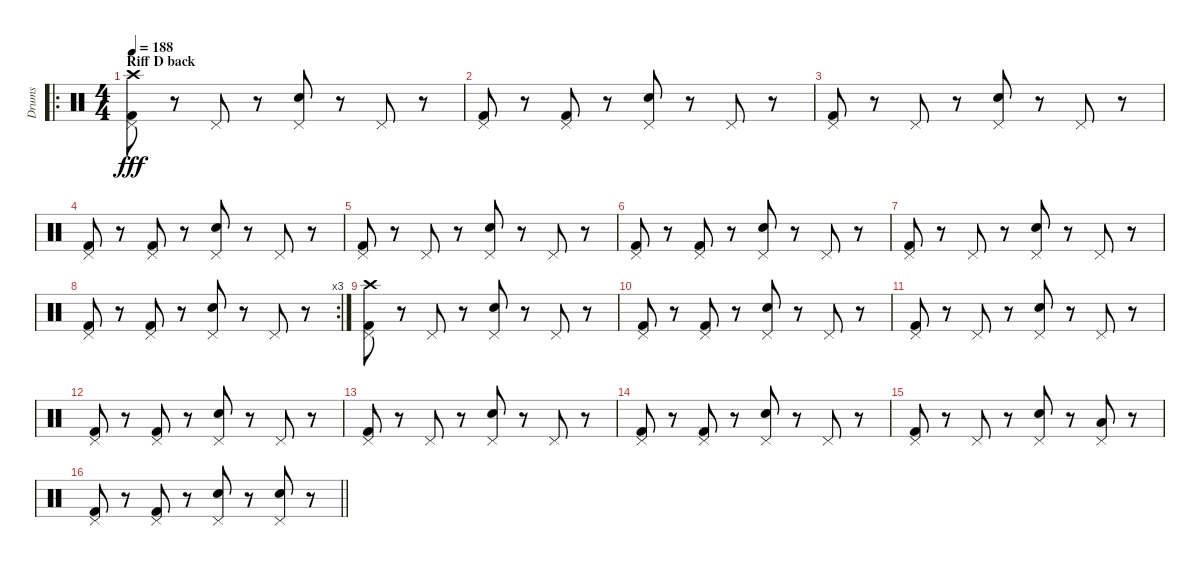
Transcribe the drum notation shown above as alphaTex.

\track ("Drums" "Drums") {instrument percussion}
\staff {score}
\articulation defaults
\ro
\ts (4 4)
\section ("" "Riff D back")
\tempo 188
\clef neutral
\ks c
("Crash high (hit)" "Pedal Hi-Hat (hit)" "Kick (hit) 2").8{dy fff} r.8 "Pedal Hi-Hat (hit)".8 r.8 ("Pedal Hi-Hat (hit)" "Electric Snare (hit)").8 r.8 "Pedal Hi-Hat (hit)".8 r.8 |
("Pedal Hi-Hat (hit)" "Kick (hit) 2").8 r.8 ("Pedal Hi-Hat (hit)" "Kick (hit) 2").8 r.8 ("Pedal Hi-Hat (hit)" "Electric Snare (hit)").8 r.8 "Pedal Hi-Hat (hit)".8 r.8 |
("Pedal Hi-Hat (hit)" "Kick (hit) 2").8 r.8 "Pedal Hi-Hat (hit)".8 r.8 ("Pedal Hi-Hat (hit)" "Electric Snare (hit)").8 r.8 "Pedal Hi-Hat (hit)".8 r.8 |
("Pedal Hi-Hat (hit)" "Kick (hit) 2").8 r.8 ("Pedal Hi-Hat (hit)" "Kick (hit) 2").8 r.8 ("Pedal Hi-Hat (hit)" "Electric Snare (hit)").8 r.8 "Pedal Hi-Hat (hit)".8 r.8 |
("Pedal Hi-Hat (hit)" "Kick (hit) 2").8 r.8 "Pedal Hi-Hat (hit)".8 r.8 ("Pedal Hi-Hat (hit)" "Electric Snare (hit)").8 r.8 "Pedal Hi-Hat (hit)".8 r.8 |
("Pedal Hi-Hat (hit)" "Kick (hit) 2").8 r.8 ("Pedal Hi-Hat (hit)" "Kick (hit) 2").8 r.8 ("Pedal Hi-Hat (hit)" "Electric Snare (hit)").8 r.8 "Pedal Hi-Hat (hit)".8 r.8 |
("Pedal Hi-Hat (hit)" "Kick (hit) 2").8 r.8 "Pedal Hi-Hat (hit)".8 r.8 ("Pedal Hi-Hat (hit)" "Electric Snare (hit)").8 r.8 "Pedal Hi-Hat (hit)".8 r.8 |
\rc 3
("Pedal Hi-Hat (hit)" "Kick (hit) 2").8 r.8 ("Pedal Hi-Hat (hit)" "Kick (hit) 2").8 r.8 ("Pedal Hi-Hat (hit)" "Electric Snare (hit)").8 r.8 "Pedal Hi-Hat (hit)".8 r.8 |
("Crash high (hit)" "Pedal Hi-Hat (hit)" "Kick (hit) 2").8 r.8 "Pedal Hi-Hat (hit)".8 r.8 ("Pedal Hi-Hat (hit)" "Electric Snare (hit)").8 r.8 "Pedal Hi-Hat (hit)".8 r.8 |
("Pedal Hi-Hat (hit)" "Kick (hit) 2").8 r.8 ("Pedal Hi-Hat (hit)" "Kick (hit) 2").8 r.8 ("Pedal Hi-Hat (hit)" "Electric Snare (hit)").8 r.8 "Pedal Hi-Hat (hit)".8 r.8 |
("Pedal Hi-Hat (hit)" "Kick (hit) 2").8 r.8 "Pedal Hi-Hat (hit)".8 r.8 ("Pedal Hi-Hat (hit)" "Electric Snare (hit)").8 r.8 "Pedal Hi-Hat (hit)".8 r.8 |
("Pedal Hi-Hat (hit)" "Kick (hit) 2").8 r.8 ("Pedal Hi-Hat (hit)" "Kick (hit) 2").8 r.8 ("Pedal Hi-Hat (hit)" "Electric Snare (hit)").8 r.8 "Pedal Hi-Hat (hit)".8 r.8 |
("Pedal Hi-Hat (hit)" "Kick (hit) 2").8 r.8 "Pedal Hi-Hat (hit)".8 r.8 ("Pedal Hi-Hat (hit)" "Electric Snare (hit)").8 r.8 "Pedal Hi-Hat (hit)".8 r.8 |
("Pedal Hi-Hat (hit)" "Kick (hit) 2").8 r.8 ("Pedal Hi-Hat (hit)" "Kick (hit) 2").8 r.8 ("Pedal Hi-Hat (hit)" "Electric Snare (hit)").8 r.8 "Pedal Hi-Hat (hit)".8 r.8 |
("Pedal Hi-Hat (hit)" "Kick (hit) 2").8 r.8 "Pedal Hi-Hat (hit)".8 r.8 ("Pedal Hi-Hat (hit)" "Electric Snare (hit)").8 r.8 ("Pedal Hi-Hat (hit)" "Low Tom (hit)").8 r.8 |
\barLineRight lightlight
("Pedal Hi-Hat (hit)" "Kick (hit) 2").8 r.8 ("Pedal Hi-Hat (hit)" "Kick (hit) 2").8 r.8 ("Pedal Hi-Hat (hit)" "Electric Snare (hit)").8 r.8 ("Pedal Hi-Hat (hit)" "Electric Snare (hit)").8 r.8
